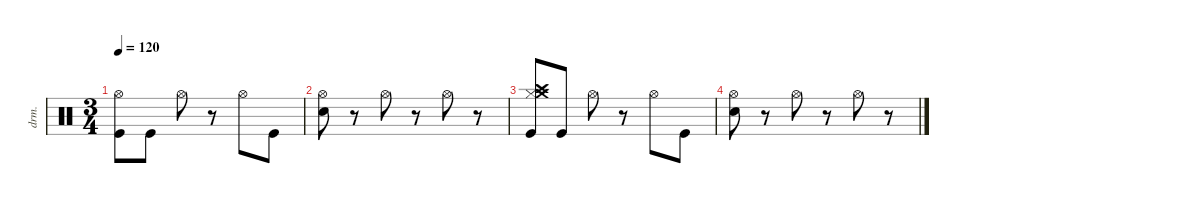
\defaultSystemsLayout 4
\hideDynamics
\bracketExtendMode nobrackets
\otherSystemsTrackNameOrientation horizontal
\track ("Drumkit" "drm.") {instrument percussion}
\staff {score}
\articulation defaults
\ts (3 4)
\tempo 120
\clef neutral
\ks c
("Kick (hit)" "Hi-Hat (open)").8{dy mf beam Down} "Kick (hit)".8{beam Down} "Hi-Hat (open)".8{beam Down} r.8{beam Down} "Hi-Hat (open)".8{beam Down} "Kick (hit)".8{beam Down} |
("Hi-Hat (open)" "Snare (hit) 2").8{beam Down} r.8{beam Down} "Hi-Hat (open)".8{beam Down} r.8{beam Down} "Hi-Hat (open)".8{beam Down} r.8{beam Down} |
("Kick (hit)" "Hi-Hat (closed)" "Crash medium (hit)" "Crash high (hit)").8{beam Up} "Kick (hit)".8{beam Up} "Hi-Hat (open)".8{beam Down} r.8{beam Down} "Hi-Hat (open)".8{beam Down} "Kick (hit)".8{beam Down} |
("Hi-Hat (open)" "Snare (hit) 2").8{beam Down} r.8{beam Down} "Hi-Hat (open)".8{beam Down} r.8{beam Down} "Hi-Hat (open)".8{beam Down} r.8{beam Down}
